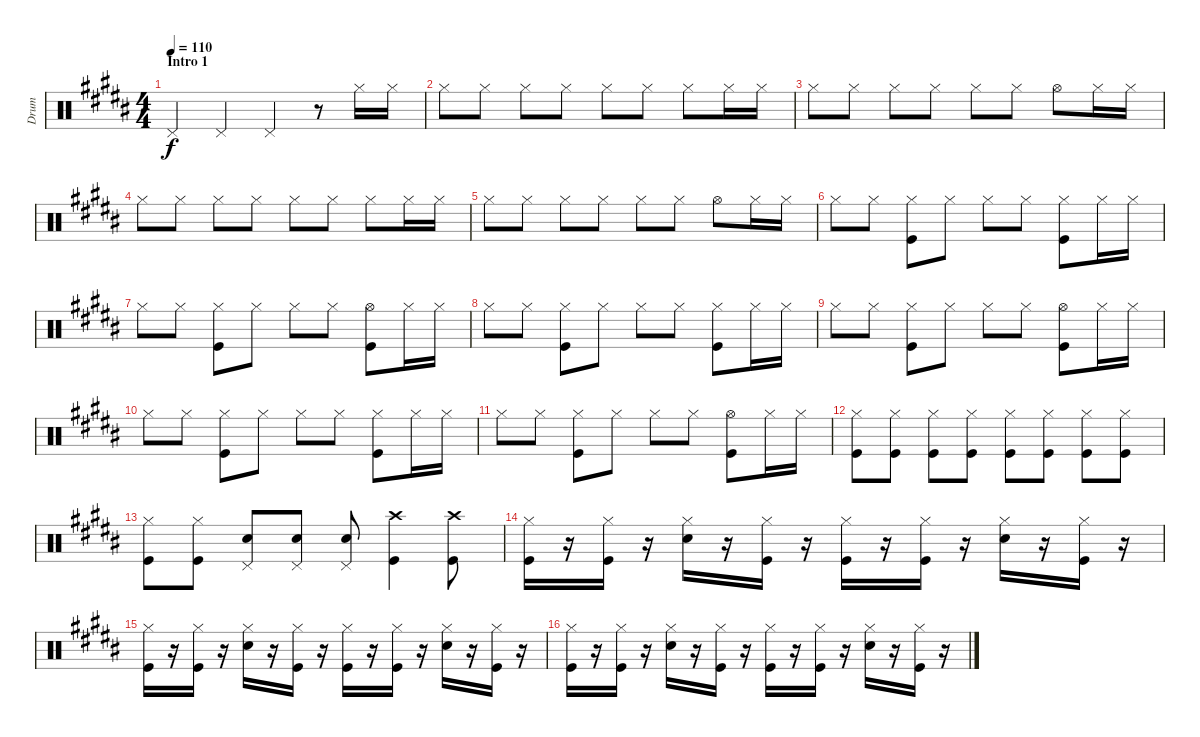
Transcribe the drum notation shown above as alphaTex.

\track ("Drum" "Drum") {instrument percussion}
\staff {score}
\articulation defaults
\ts (4 4)
\section ("" "Intro 1")
\tempo 110
\clef neutral
\ks b "Pedal Hi-Hat (hit)".4{dy f} "Pedal Hi-Hat (hit)".4 "Pedal Hi-Hat (hit)".4
r.8 "Hi-Hat (closed)".16 "Hi-Hat (closed)".16 |
"Hi-Hat (closed)".8 "Hi-Hat (closed)".8 "Hi-Hat (closed)".8 "Hi-Hat (closed)".8 "Hi-Hat (closed)".8 "Hi-Hat (closed)".8 "Hi-Hat (closed)".8 "Hi-Hat (closed)".16 "Hi-Hat (closed)".16 |
"Hi-Hat (closed)".8 "Hi-Hat (closed)".8 "Hi-Hat (closed)".8 "Hi-Hat (closed)".8 "Hi-Hat (closed)".8 "Hi-Hat (closed)".8 "Hi-Hat (open)".8 "Hi-Hat (closed)".16 "Hi-Hat (closed)".16 |
"Hi-Hat (closed)".8 "Hi-Hat (closed)".8 "Hi-Hat (closed)".8 "Hi-Hat (closed)".8 "Hi-Hat (closed)".8 "Hi-Hat (closed)".8 "Hi-Hat (closed)".8 "Hi-Hat (closed)".16 "Hi-Hat (closed)".16 |
"Hi-Hat (closed)".8 "Hi-Hat (closed)".8 "Hi-Hat (closed)".8 "Hi-Hat (closed)".8 "Hi-Hat (closed)".8 "Hi-Hat (closed)".8 "Hi-Hat (open)".8 "Hi-Hat (closed)".16 "Hi-Hat (closed)".16 |
"Hi-Hat (closed)".8 "Hi-Hat (closed)".8 ("Hi-Hat (closed)" "Kick (hit)").8 "Hi-Hat (closed)".8 "Hi-Hat (closed)".8 "Hi-Hat (closed)".8 ("Hi-Hat (closed)" "Kick (hit)").8 "Hi-Hat (closed)".16 "Hi-Hat (closed)".16 |
"Hi-Hat (closed)".8 "Hi-Hat (closed)".8 ("Hi-Hat (closed)" "Kick (hit)").8 "Hi-Hat (closed)".8 "Hi-Hat (closed)".8 "Hi-Hat (closed)".8 ("Hi-Hat (open)" "Kick (hit)").8 "Hi-Hat (closed)".16 "Hi-Hat (closed)".16 |
"Hi-Hat (closed)".8 "Hi-Hat (closed)".8 ("Hi-Hat (closed)" "Kick (hit)").8 "Hi-Hat (closed)".8 "Hi-Hat (closed)".8 "Hi-Hat (closed)".8 ("Hi-Hat (closed)" "Kick (hit)").8 "Hi-Hat (closed)".16 "Hi-Hat (closed)".16 |
"Hi-Hat (closed)".8 "Hi-Hat (closed)".8 ("Hi-Hat (closed)" "Kick (hit)").8 "Hi-Hat (closed)".8 "Hi-Hat (closed)".8 "Hi-Hat (closed)".8 ("Hi-Hat (open)" "Kick (hit)").8 "Hi-Hat (closed)".16 "Hi-Hat (closed)".16 |
"Hi-Hat (closed)".8 "Hi-Hat (closed)".8 ("Hi-Hat (closed)" "Kick (hit)").8 "Hi-Hat (closed)".8 "Hi-Hat (closed)".8 "Hi-Hat (closed)".8 ("Hi-Hat (closed)" "Kick (hit)").8 "Hi-Hat (closed)".16 "Hi-Hat (closed)".16 |
"Hi-Hat (closed)".8 "Hi-Hat (closed)".8 ("Hi-Hat (closed)" "Kick (hit)").8 "Hi-Hat (closed)".8 "Hi-Hat (closed)".8 "Hi-Hat (closed)".8 ("Hi-Hat (open)" "Kick (hit)").8 "Hi-Hat (closed)".16 "Hi-Hat (closed)".16 |
("Hi-Hat (closed)" "Kick (hit)").8 ("Hi-Hat (closed)" "Kick (hit)").8 ("Hi-Hat (closed)" "Kick (hit)").8 ("Hi-Hat (closed)" "Kick (hit)").8 ("Hi-Hat (closed)" "Kick (hit)").8 ("Hi-Hat (closed)" "Kick (hit)").8 ("Hi-Hat (closed)" "Kick (hit)").8 ("Hi-Hat (closed)" "Kick (hit)").8 |
\ks g#minor
("Hi-Hat (closed)" "Kick (hit)").8 ("Hi-Hat (closed)" "Kick (hit)").8 ("Pedal Hi-Hat (hit)" "Snare (hit) 2").8 ("Pedal Hi-Hat (hit)" "Snare (hit) 2").8 ("Pedal Hi-Hat (hit)" "Snare (hit) 2").8 ("Kick (hit)" "Crash high (hit)").4 ("Kick (hit)" "Crash high (hit)").8 |
("Kick (hit)" "Hi-Hat (closed)").16 r.16 ("Kick (hit)" "Hi-Hat (closed)").16 r.16 ("Snare (hit) 2" "Hi-Hat (closed)").16 r.16 ("Kick (hit)" "Hi-Hat (closed)").16 r.16 ("Kick (hit)" "Hi-Hat (closed)").16 r.16 ("Kick (hit)" "Hi-Hat (closed)").16 r.16 ("Snare (hit) 2" "Hi-Hat (closed)").16 r.16 ("Kick (hit)" "Hi-Hat (closed)").16 r.16 |
\ks b
("Kick (hit)" "Hi-Hat (closed)").16 r.16 ("Kick (hit)" "Hi-Hat (closed)").16 r.16 ("Snare (hit) 2" "Hi-Hat (closed)").16 r.16 ("Kick (hit)" "Hi-Hat (closed)").16 r.16 ("Kick (hit)" "Hi-Hat (closed)").16 r.16 ("Kick (hit)" "Hi-Hat (closed)").16 r.16 ("Snare (hit) 2" "Hi-Hat (closed)").16 r.16 ("Kick (hit)" "Hi-Hat (closed)").16 r.16 |
\ks g#minor
("Kick (hit)" "Hi-Hat (closed)").16 r.16 ("Kick (hit)" "Hi-Hat (closed)").16 r.16 ("Snare (hit) 2" "Hi-Hat (closed)").16 r.16 ("Kick (hit)" "Hi-Hat (closed)").16 r.16 ("Kick (hit)" "Hi-Hat (closed)").16 r.16 ("Kick (hit)" "Hi-Hat (closed)").16 r.16 ("Snare (hit) 2" "Hi-Hat (closed)").16 r.16 ("Kick (hit)" "Hi-Hat (closed)").16 r.16
